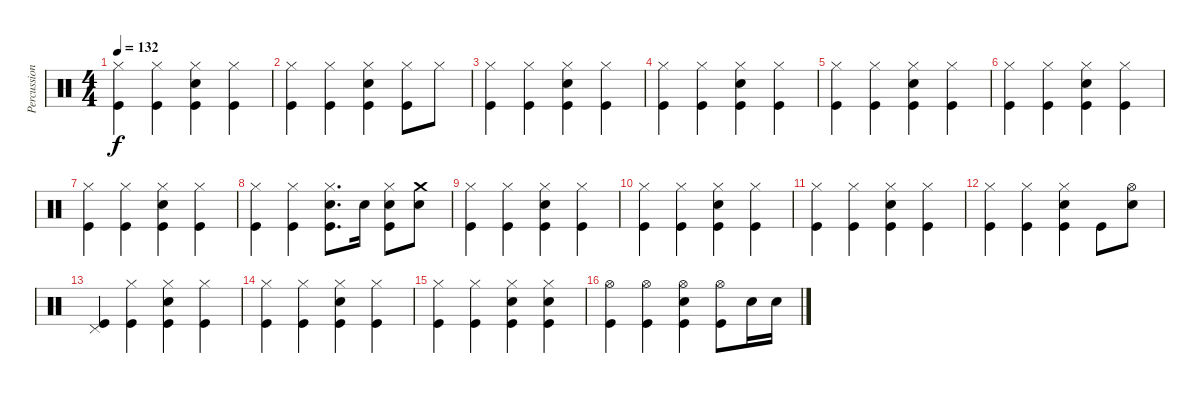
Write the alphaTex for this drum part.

\track ("Percussion" "Percussion") {instrument percussion}
\staff {score}
\articulation defaults
\ts (4 4)
\tempo 132
\clef neutral
\ks c
("Hi-Hat (closed)" "Kick (hit)").4{dy f} ("Hi-Hat (closed)" "Kick (hit)").4 ("Hi-Hat (closed)" "Electric Snare (hit)" "Kick (hit)").4 ("Hi-Hat (closed)" "Kick (hit)").4 |
("Hi-Hat (closed)" "Kick (hit)").4 ("Hi-Hat (closed)" "Kick (hit)").4 ("Hi-Hat (closed)" "Electric Snare (hit)" "Kick (hit)").4 ("Hi-Hat (closed)" "Kick (hit)").8 "Hi-Hat (closed)".8 |
("Hi-Hat (closed)" "Kick (hit)").4 ("Hi-Hat (closed)" "Kick (hit)").4 ("Hi-Hat (closed)" "Electric Snare (hit)" "Kick (hit)").4 ("Hi-Hat (closed)" "Kick (hit)").4 |
("Hi-Hat (closed)" "Kick (hit)").4 ("Hi-Hat (closed)" "Kick (hit)").4 ("Hi-Hat (closed)" "Electric Snare (hit)" "Kick (hit)").4 ("Hi-Hat (closed)" "Kick (hit)").4 |
("Hi-Hat (closed)" "Kick (hit)").4 ("Hi-Hat (closed)" "Kick (hit)").4 ("Hi-Hat (closed)" "Electric Snare (hit)" "Kick (hit)").4 ("Hi-Hat (closed)" "Kick (hit)").4 |
("Hi-Hat (closed)" "Kick (hit)").4 ("Hi-Hat (closed)" "Kick (hit)").4 ("Hi-Hat (closed)" "Electric Snare (hit)" "Kick (hit)").4 ("Hi-Hat (closed)" "Kick (hit)").4 |
("Hi-Hat (closed)" "Kick (hit)").4 ("Hi-Hat (closed)" "Kick (hit)").4 ("Hi-Hat (closed)" "Electric Snare (hit)" "Kick (hit)").4 ("Hi-Hat (closed)" "Kick (hit)").4 |
("Hi-Hat (closed)" "Kick (hit)").4 ("Hi-Hat (closed)" "Kick (hit)").4 ("Hi-Hat (closed)" "Electric Snare (hit)" "Kick (hit)").8{d} "Electric Snare (hit)".16 ("Hi-Hat (closed)" "Electric Snare (hit)" "Kick (hit)").8 ("Crash medium (hit)" "Electric Snare (hit)").8 |
("Hi-Hat (closed)" "Kick (hit)").4 ("Hi-Hat (closed)" "Kick (hit)").4 ("Hi-Hat (closed)" "Electric Snare (hit)" "Kick (hit)").4 ("Hi-Hat (closed)" "Kick (hit)").4 |
("Hi-Hat (closed)" "Kick (hit)").4 ("Hi-Hat (closed)" "Kick (hit)").4 ("Hi-Hat (closed)" "Electric Snare (hit)" "Kick (hit)").4 ("Hi-Hat (closed)" "Kick (hit)").4 |
("Hi-Hat (closed)" "Kick (hit)").4 ("Hi-Hat (closed)" "Kick (hit)").4 ("Hi-Hat (closed)" "Electric Snare (hit)" "Kick (hit)").4 ("Hi-Hat (closed)" "Kick (hit)").4 |
("Hi-Hat (closed)" "Kick (hit)").4 ("Hi-Hat (closed)" "Kick (hit)").4 ("Hi-Hat (closed)" "Electric Snare (hit)" "Kick (hit)").4 "Kick (hit)".8 ("Hi-Hat (open)" "Electric Snare (hit)").8 |
("Pedal Hi-Hat (hit)" "Kick (hit)").4 ("Hi-Hat (closed)" "Kick (hit)").4 ("Hi-Hat (closed)" "Electric Snare (hit)" "Kick (hit)").4 ("Hi-Hat (closed)" "Kick (hit)").4 |
("Hi-Hat (closed)" "Kick (hit)").4 ("Hi-Hat (closed)" "Kick (hit)").4 ("Hi-Hat (closed)" "Electric Snare (hit)" "Kick (hit)").4 ("Hi-Hat (closed)" "Kick (hit)").4 |
("Hi-Hat (closed)" "Kick (hit)").4 ("Hi-Hat (closed)" "Kick (hit)").4 ("Hi-Hat (closed)" "Electric Snare (hit)" "Kick (hit)").4 ("Hi-Hat (closed)" "Electric Snare (hit)" "Kick (hit)").4 |
("Hi-Hat (open)" "Kick (hit)").4 ("Hi-Hat (open)" "Kick (hit)").4 ("Hi-Hat (open)" "Electric Snare (hit)" "Kick (hit)").4 ("Hi-Hat (open)" "Kick (hit)").8 "Electric Snare (hit)".16 "Electric Snare (hit)".16
